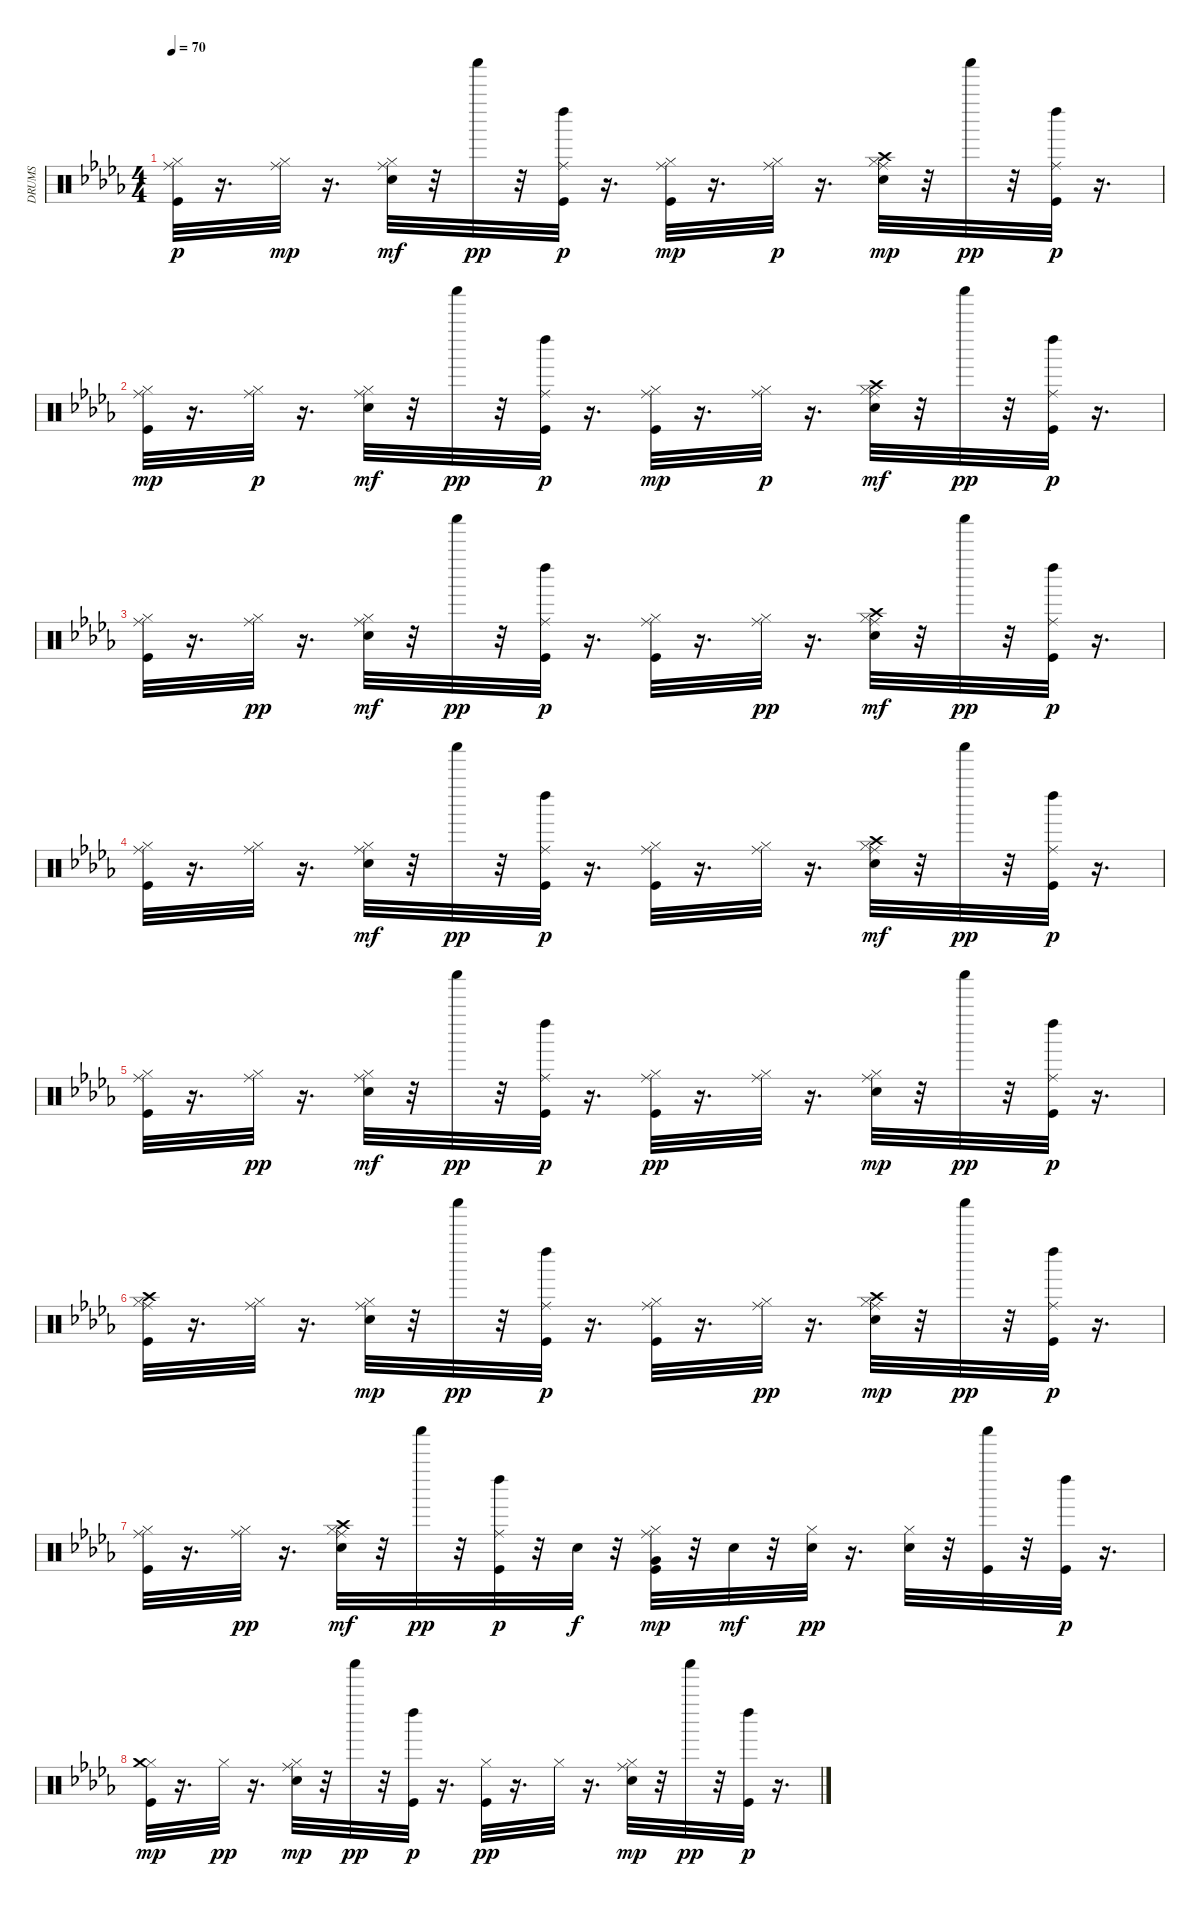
\track ("DRUMS" "DRUMS") {instrument percussion}
\staff {score}
\articulation defaults
\ts (4 4)
\tempo 70
\clef neutral
\ks bbminor
("Kick (hit)" "Hi-Hat (closed)" "Ride (middle)").32{dy p} r.16{d} ("Hi-Hat (closed)" "Ride (middle)").32{dy mp} r.16{d} ("Electric Snare (hit)" "Hi-Hat (closed)" "Ride (middle)").32{dy mf} r.32 "Shaker (hit)".32{dy pp} r.32 ("Kick (hit)" "Ride (middle)" "Left Maraca (hit)").32{dy p} r.16{d} ("Kick (hit)" "Hi-Hat (closed)" "Ride (middle)").32{dy mp} r.16{d} ("Hi-Hat (closed)" "Ride (middle)").32{dy p} r.16{d} ("Electric Snare (hit)" "Hi-Hat (closed)" "Crash high (hit)" "Ride (middle)").32{dy mp} r.32 "Shaker (hit)".32{dy pp} r.32 ("Kick (hit)" "Ride (middle)" "Left Maraca (hit)").32{dy p} r.16{d} |
("Kick (hit)" "Hi-Hat (closed)" "Ride (middle)").32{dy mp} r.16{d} ("Hi-Hat (closed)" "Ride (middle)").32{dy p} r.16{d} ("Electric Snare (hit)" "Hi-Hat (closed)" "Ride (middle)").32{dy mf} r.32 "Shaker (hit)".32{dy pp} r.32 ("Kick (hit)" "Ride (middle)" "Left Maraca (hit)").32{dy p} r.16{d} ("Kick (hit)" "Hi-Hat (closed)" "Ride (middle)").32{dy mp} r.16{d} ("Hi-Hat (closed)" "Ride (middle)").32{dy p} r.16{d} ("Electric Snare (hit)" "Hi-Hat (closed)" "Crash high (hit)" "Ride (middle)").32{dy mf} r.32 "Shaker (hit)".32{dy pp} r.32 ("Kick (hit)" "Ride (middle)" "Left Maraca (hit)").32{dy p} r.16{d} |
("Kick (hit)" "Hi-Hat (closed)" "Ride (middle)").32 r.16{d} ("Hi-Hat (closed)" "Ride (middle)").32{dy pp} r.16{d} ("Electric Snare (hit)" "Hi-Hat (closed)" "Ride (middle)").32{dy mf} r.32 "Shaker (hit)".32{dy pp} r.32 ("Kick (hit)" "Ride (middle)" "Left Maraca (hit)").32{dy p} r.16{d} ("Kick (hit)" "Hi-Hat (closed)" "Ride (middle)").32 r.16{d} ("Hi-Hat (closed)" "Ride (middle)").32{dy pp} r.16{d} ("Electric Snare (hit)" "Hi-Hat (closed)" "Crash high (hit)" "Ride (middle)").32{dy mf} r.32 "Shaker (hit)".32{dy pp} r.32 ("Kick (hit)" "Ride (middle)" "Left Maraca (hit)").32{dy p} r.16{d} |
("Kick (hit)" "Hi-Hat (closed)" "Ride (middle)").32 r.16{d} ("Hi-Hat (closed)" "Ride (middle)").32 r.16{d} ("Electric Snare (hit)" "Hi-Hat (closed)" "Ride (middle)").32{dy mf} r.32 "Shaker (hit)".32{dy pp} r.32 ("Kick (hit)" "Ride (middle)" "Left Maraca (hit)").32{dy p} r.16{d} ("Kick (hit)" "Hi-Hat (closed)" "Ride (middle)").32 r.16{d} ("Hi-Hat (closed)" "Ride (middle)").32 r.16{d} ("Electric Snare (hit)" "Hi-Hat (closed)" "Crash high (hit)" "Ride (middle)").32{dy mf} r.32 "Shaker (hit)".32{dy pp} r.32 ("Kick (hit)" "Ride (middle)" "Left Maraca (hit)").32{dy p} r.16{d} |
("Kick (hit)" "Hi-Hat (closed)" "Ride (middle)").32 r.16{d} ("Hi-Hat (closed)" "Ride (middle)").32{dy pp} r.16{d} ("Electric Snare (hit)" "Hi-Hat (closed)" "Ride (middle)").32{dy mf} r.32 "Shaker (hit)".32{dy pp} r.32 ("Kick (hit)" "Ride (middle)" "Left Maraca (hit)").32{dy p} r.16{d} ("Kick (hit)" "Hi-Hat (closed)" "Ride (middle)").32{dy pp} r.16{d} ("Hi-Hat (closed)" "Ride (middle)").32 r.16{d} ("Electric Snare (hit)" "Hi-Hat (closed)" "Ride (middle)").32{dy mp} r.32 "Shaker (hit)".32{dy pp} r.32 ("Kick (hit)" "Ride (middle)" "Left Maraca (hit)").32{dy p} r.16{d} |
("Kick (hit)" "Hi-Hat (closed)" "Crash high (hit)" "Ride (middle)").32 r.16{d} ("Hi-Hat (closed)" "Ride (middle)").32 r.16{d} ("Electric Snare (hit)" "Hi-Hat (closed)" "Ride (middle)").32{dy mp} r.32 "Shaker (hit)".32{dy pp} r.32 ("Kick (hit)" "Ride (middle)" "Left Maraca (hit)").32{dy p} r.16{d} ("Kick (hit)" "Hi-Hat (closed)" "Ride (middle)").32 r.16{d} ("Hi-Hat (closed)" "Ride (middle)").32{dy pp} r.16{d} ("Electric Snare (hit)" "Hi-Hat (closed)" "Crash high (hit)" "Ride (middle)").32{dy mp} r.32 "Shaker (hit)".32{dy pp} r.32 ("Kick (hit)" "Ride (middle)" "Left Maraca (hit)").32{dy p} r.16{d} |
("Kick (hit)" "Hi-Hat (closed)" "Ride (middle)").32 r.16{d} ("Hi-Hat (closed)" "Ride (middle)").32{dy pp} r.16{d} ("Electric Snare (hit)" "Hi-Hat (closed)" "Crash high (hit)" "Ride (middle)").32{dy mf} r.32 "Shaker (hit)".32{dy pp} r.32 ("Kick (hit)" "Ride (middle)" "Left Maraca (hit)").32{dy p} r.32 "Electric Snare (hit)".32{dy f} r.32 ("Kick (hit)" "Hi-Hat (closed)" "Very Low Tom (hit)" "Ride (middle)").32{dy mp} r.32 "Electric Snare (hit)".32{dy mf} r.32 ("Electric Snare (hit)" "Hi-Hat (closed)").32{dy pp} r.16{d} ("Electric Snare (hit)" "Hi-Hat (closed)").32 r.32 ("Kick (hit)" "Shaker (hit)").32 r.32 ("Kick (hit)" "Left Maraca (hit)").32{dy p} r.16{d} |
("Kick (hit)" "Hi-Hat (closed)" "Crash medium (hit)").32{dy mp} r.16{d} "Hi-Hat (closed)".32{dy pp} r.16{d} ("Electric Snare (hit)" "Hi-Hat (closed)" "Ride (middle)").32{dy mp} r.32 "Shaker (hit)".32{dy pp} r.32 ("Kick (hit)" "Left Maraca (hit)").32{dy p} r.16{d} ("Kick (hit)" "Hi-Hat (closed)").32{dy pp} r.16{d} "Hi-Hat (closed)".32 r.16{d} ("Electric Snare (hit)" "Hi-Hat (closed)" "Ride (middle)").32{dy mp} r.32 "Shaker (hit)".32{dy pp} r.32 ("Kick (hit)" "Left Maraca (hit)").32{dy p} r.16{d}
